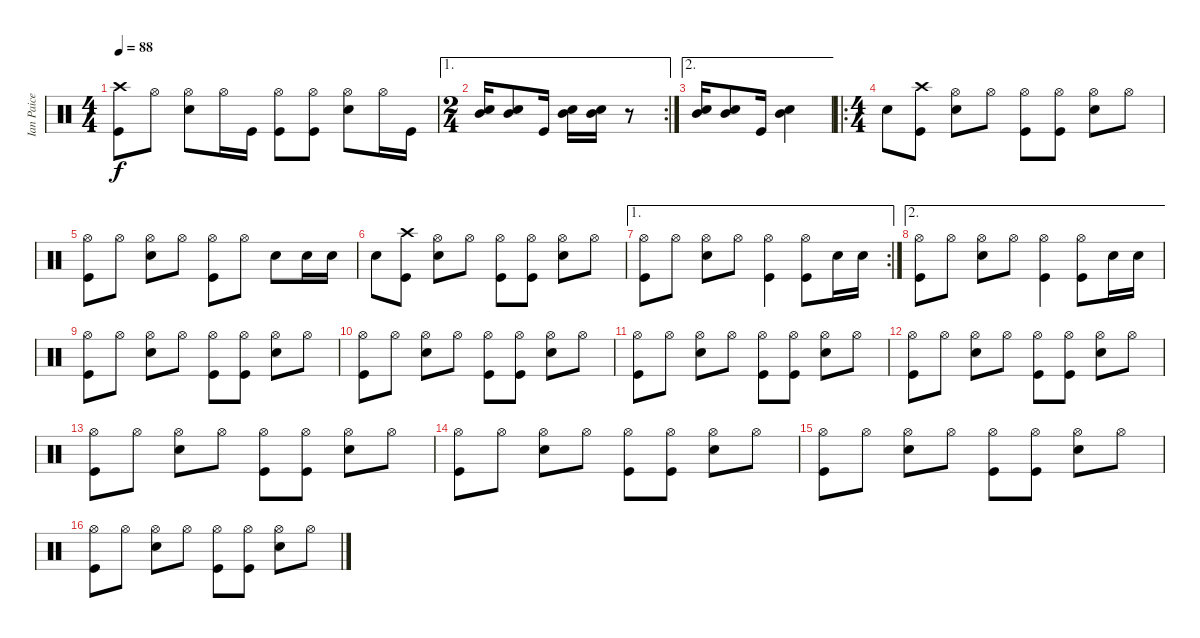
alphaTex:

\track ("Ian Paice" "Ian Paice") {instrument percussion}
\staff {score}
\articulation defaults
\ts (4 4)
\tempo 88
\clef neutral
\ks c
("Crash high (hit)" "Kick (hit)").8{dy f} "Hi-Hat (open)".8 ("Hi-Hat (open)" "Snare (hit) 2").8 "Hi-Hat (open)".16 "Kick (hit)".16 ("Hi-Hat (open)" "Kick (hit)").8 ("Hi-Hat (open)" "Kick (hit)").8 ("Hi-Hat (open)" "Snare (hit) 2").8 "Hi-Hat (open)".16 "Kick (hit)".16 |
\ae 1
\rc 2
\ts (2 4)
("Snare (hit) 2" "Mid Tom (hit)").16 ("Snare (hit) 2" "Mid Tom (hit)").8 "Kick (hit)".16 ("Snare (hit) 2" "Mid Tom (hit)").16 ("Snare (hit) 2" "Mid Tom (hit)").16 r.8 |
\ae 2
("Mid Tom (hit)" "Snare (hit) 2").16 ("Mid Tom (hit)" "Snare (hit) 2").8 "Kick (hit)".16 ("Mid Tom (hit)" "Snare (hit) 2").4 |
\ro
\ts (4 4)
"Snare (hit) 2".8 ("Crash high (hit)" "Kick (hit)").8 ("Hi-Hat (open)" "Snare (hit) 2").8 "Hi-Hat (open)".8 ("Hi-Hat (open)" "Kick (hit)").8 ("Hi-Hat (open)" "Kick (hit)").8 ("Hi-Hat (open)" "Snare (hit) 2").8 "Hi-Hat (open)".8 |
("Hi-Hat (open)" "Kick (hit)").8 "Hi-Hat (open)".8 ("Hi-Hat (open)" "Snare (hit) 2").8 "Hi-Hat (open)".8 ("Hi-Hat (open)" "Kick (hit)").8 "Hi-Hat (open)".8 "Snare (hit) 2".8 "Snare (hit) 2".16 "Snare (hit) 2".16 |
"Snare (hit) 2".8 ("Crash high (hit)" "Kick (hit)").8 ("Hi-Hat (open)" "Snare (hit) 2").8 "Hi-Hat (open)".8 ("Hi-Hat (open)" "Kick (hit)").8 ("Hi-Hat (open)" "Kick (hit)").8 ("Hi-Hat (open)" "Snare (hit) 2").8 "Hi-Hat (open)".8 |
\ae 1
\rc 2
("Hi-Hat (open)" "Kick (hit)").8 "Hi-Hat (open)".8 ("Hi-Hat (open)" "Snare (hit) 2").8 "Hi-Hat (open)".8 ("Hi-Hat (open)" "Kick (hit)").4 ("Hi-Hat (open)" "Kick (hit)").8 "Snare (hit) 2".16 "Snare (hit) 2".16 |
\ae 2
("Hi-Hat (open)" "Kick (hit)").8 "Hi-Hat (open)".8 ("Hi-Hat (open)" "Snare (hit) 2").8 "Hi-Hat (open)".8 ("Hi-Hat (open)" "Kick (hit)").4 ("Hi-Hat (open)" "Kick (hit)").8 "Snare (hit) 2".16 "Snare (hit) 2".16 |
("Hi-Hat (open)" "Kick (hit)").8 "Hi-Hat (open)".8 ("Hi-Hat (open)" "Snare (hit) 2").8 "Hi-Hat (open)".8 ("Hi-Hat (open)" "Kick (hit)").8 ("Hi-Hat (open)" "Kick (hit)").8 ("Hi-Hat (open)" "Snare (hit) 2").8 "Hi-Hat (open)".8 |
("Hi-Hat (open)" "Kick (hit)").8 "Hi-Hat (open)".8 ("Hi-Hat (open)" "Snare (hit) 2").8 "Hi-Hat (open)".8 ("Hi-Hat (open)" "Kick (hit)").8 ("Hi-Hat (open)" "Kick (hit)").8 ("Hi-Hat (open)" "Snare (hit) 2").8 "Hi-Hat (open)".8 |
("Hi-Hat (open)" "Kick (hit)").8 "Hi-Hat (open)".8 ("Hi-Hat (open)" "Snare (hit) 2").8 "Hi-Hat (open)".8 ("Hi-Hat (open)" "Kick (hit)").8 ("Hi-Hat (open)" "Kick (hit)").8 ("Hi-Hat (open)" "Snare (hit) 2").8 "Hi-Hat (open)".8 |
("Hi-Hat (open)" "Kick (hit)").8 "Hi-Hat (open)".8 ("Hi-Hat (open)" "Snare (hit) 2").8 "Hi-Hat (open)".8 ("Hi-Hat (open)" "Kick (hit)").8 ("Hi-Hat (open)" "Kick (hit)").8 ("Hi-Hat (open)" "Snare (hit) 2").8 "Hi-Hat (open)".8 |
("Hi-Hat (open)" "Kick (hit)").8 "Hi-Hat (open)".8 ("Hi-Hat (open)" "Snare (hit) 2").8 "Hi-Hat (open)".8 ("Hi-Hat (open)" "Kick (hit)").8 ("Hi-Hat (open)" "Kick (hit)").8 ("Hi-Hat (open)" "Snare (hit) 2").8 "Hi-Hat (open)".8 |
("Hi-Hat (open)" "Kick (hit)").8 "Hi-Hat (open)".8 ("Hi-Hat (open)" "Snare (hit) 2").8 "Hi-Hat (open)".8 ("Hi-Hat (open)" "Kick (hit)").8 ("Hi-Hat (open)" "Kick (hit)").8 ("Hi-Hat (open)" "Snare (hit) 2").8 "Hi-Hat (open)".8 |
("Hi-Hat (open)" "Kick (hit)").8 "Hi-Hat (open)".8 ("Hi-Hat (open)" "Snare (hit) 2").8 "Hi-Hat (open)".8 ("Hi-Hat (open)" "Kick (hit)").8 ("Hi-Hat (open)" "Kick (hit)").8 ("Hi-Hat (open)" "Snare (hit) 2").8 "Hi-Hat (open)".8 |
("Hi-Hat (open)" "Kick (hit)").8 "Hi-Hat (open)".8 ("Hi-Hat (open)" "Snare (hit) 2").8 "Hi-Hat (open)".8 ("Hi-Hat (open)" "Kick (hit)").8 ("Hi-Hat (open)" "Kick (hit)").8 ("Hi-Hat (open)" "Snare (hit) 2").8 "Hi-Hat (open)".8
